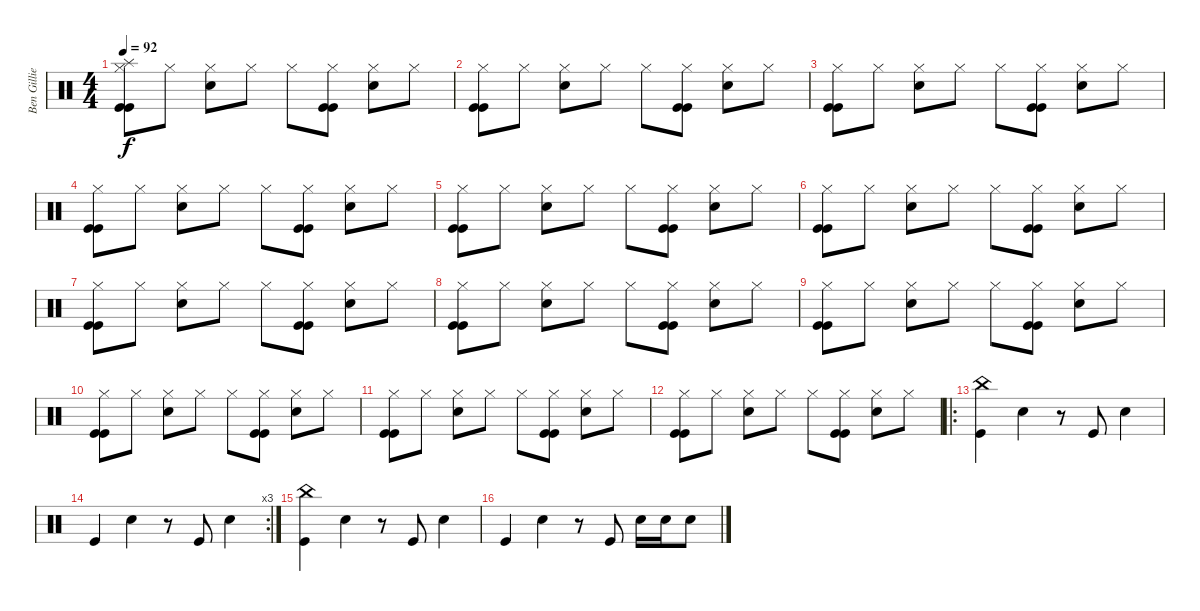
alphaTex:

\track ("Ben Gillies (Drums)" "Ben Gillie") {instrument percussion}
\staff {score}
\articulation defaults
\ts (4 4)
\tempo 92
\clef neutral
\ks c
("Splash (hit)" "Hi-Hat (closed)" "Kick (hit)" "Kick (hit)").8{dy f} "Hi-Hat (closed)".8 ("Electric Snare (hit)" "Hi-Hat (closed)").8 "Hi-Hat (closed)".8 "Hi-Hat (closed)".8 ("Hi-Hat (closed)" "Kick (hit)" "Kick (hit)").8 ("Electric Snare (hit)" "Hi-Hat (closed)").8 "Hi-Hat (closed)".8 |
("Hi-Hat (closed)" "Kick (hit)" "Kick (hit)").8 "Hi-Hat (closed)".8 ("Electric Snare (hit)" "Hi-Hat (closed)").8 "Hi-Hat (closed)".8 "Hi-Hat (closed)".8 ("Hi-Hat (closed)" "Kick (hit)" "Kick (hit)").8 ("Electric Snare (hit)" "Hi-Hat (closed)").8 "Hi-Hat (closed)".8 |
("Hi-Hat (closed)" "Kick (hit)" "Kick (hit)").8 "Hi-Hat (closed)".8 ("Electric Snare (hit)" "Hi-Hat (closed)").8 "Hi-Hat (closed)".8 "Hi-Hat (closed)".8 ("Hi-Hat (closed)" "Kick (hit)" "Kick (hit)").8 ("Electric Snare (hit)" "Hi-Hat (closed)").8 "Hi-Hat (closed)".8 |
("Hi-Hat (closed)" "Kick (hit)" "Kick (hit)").8 "Hi-Hat (closed)".8 ("Electric Snare (hit)" "Hi-Hat (closed)").8 "Hi-Hat (closed)".8 "Hi-Hat (closed)".8 ("Hi-Hat (closed)" "Kick (hit)" "Kick (hit)").8 ("Electric Snare (hit)" "Hi-Hat (closed)").8 "Hi-Hat (closed)".8 |
("Hi-Hat (closed)" "Kick (hit)" "Kick (hit)").8 "Hi-Hat (closed)".8 ("Electric Snare (hit)" "Hi-Hat (closed)").8 "Hi-Hat (closed)".8 "Hi-Hat (closed)".8 ("Hi-Hat (closed)" "Kick (hit)" "Kick (hit)").8 ("Electric Snare (hit)" "Hi-Hat (closed)").8 "Hi-Hat (closed)".8 |
("Hi-Hat (closed)" "Kick (hit)" "Kick (hit)").8 "Hi-Hat (closed)".8 ("Electric Snare (hit)" "Hi-Hat (closed)").8 "Hi-Hat (closed)".8 "Hi-Hat (closed)".8 ("Hi-Hat (closed)" "Kick (hit)" "Kick (hit)").8 ("Electric Snare (hit)" "Hi-Hat (closed)").8 "Hi-Hat (closed)".8 |
("Hi-Hat (closed)" "Kick (hit)" "Kick (hit)").8 "Hi-Hat (closed)".8 ("Electric Snare (hit)" "Hi-Hat (closed)").8 "Hi-Hat (closed)".8 "Hi-Hat (closed)".8 ("Hi-Hat (closed)" "Kick (hit)" "Kick (hit)").8 ("Electric Snare (hit)" "Hi-Hat (closed)").8 "Hi-Hat (closed)".8 |
("Hi-Hat (closed)" "Kick (hit)" "Kick (hit)").8 "Hi-Hat (closed)".8 ("Electric Snare (hit)" "Hi-Hat (closed)").8 "Hi-Hat (closed)".8 "Hi-Hat (closed)".8 ("Hi-Hat (closed)" "Kick (hit)" "Kick (hit)").8 ("Electric Snare (hit)" "Hi-Hat (closed)").8 "Hi-Hat (closed)".8 |
("Hi-Hat (closed)" "Kick (hit)" "Kick (hit)").8 "Hi-Hat (closed)".8 ("Electric Snare (hit)" "Hi-Hat (closed)").8 "Hi-Hat (closed)".8 "Hi-Hat (closed)".8 ("Hi-Hat (closed)" "Kick (hit)" "Kick (hit)").8 ("Electric Snare (hit)" "Hi-Hat (closed)").8 "Hi-Hat (closed)".8 |
("Hi-Hat (closed)" "Kick (hit)" "Kick (hit)").8 "Hi-Hat (closed)".8 ("Electric Snare (hit)" "Hi-Hat (closed)").8 "Hi-Hat (closed)".8 "Hi-Hat (closed)".8 ("Hi-Hat (closed)" "Kick (hit)" "Kick (hit)").8 ("Electric Snare (hit)" "Hi-Hat (closed)").8 "Hi-Hat (closed)".8 |
("Hi-Hat (closed)" "Kick (hit)" "Kick (hit)").8 "Hi-Hat (closed)".8 ("Electric Snare (hit)" "Hi-Hat (closed)").8 "Hi-Hat (closed)".8 "Hi-Hat (closed)".8 ("Hi-Hat (closed)" "Kick (hit)" "Kick (hit)").8 ("Electric Snare (hit)" "Hi-Hat (closed)").8 "Hi-Hat (closed)".8 |
("Hi-Hat (closed)" "Kick (hit)" "Kick (hit)").8 "Hi-Hat (closed)".8 ("Electric Snare (hit)" "Hi-Hat (closed)").8 "Hi-Hat (closed)".8 "Hi-Hat (closed)".8 ("Hi-Hat (closed)" "Kick (hit)" "Kick (hit)").8 ("Electric Snare (hit)" "Hi-Hat (closed)").8 "Hi-Hat (closed)".8 |
\ro
("China (hit)" "Kick (hit)").4 "Electric Snare (hit)".4 r.8 "Kick (hit)".8 "Electric Snare (hit)".4 |
\rc 3 "Kick (hit)".4 "Electric Snare (hit)".4
r.8 "Kick (hit)".8 "Electric Snare (hit)".4 |
("China (hit)" "Kick (hit)").4 "Electric Snare (hit)".4 r.8 "Kick (hit)".8 "Electric Snare (hit)".4 |
"Kick (hit)".4 "Electric Snare (hit)".4 r.8 "Kick (hit)".8 "Electric Snare (hit)".16 "Electric Snare (hit)".16 "Electric Snare (hit)".8
